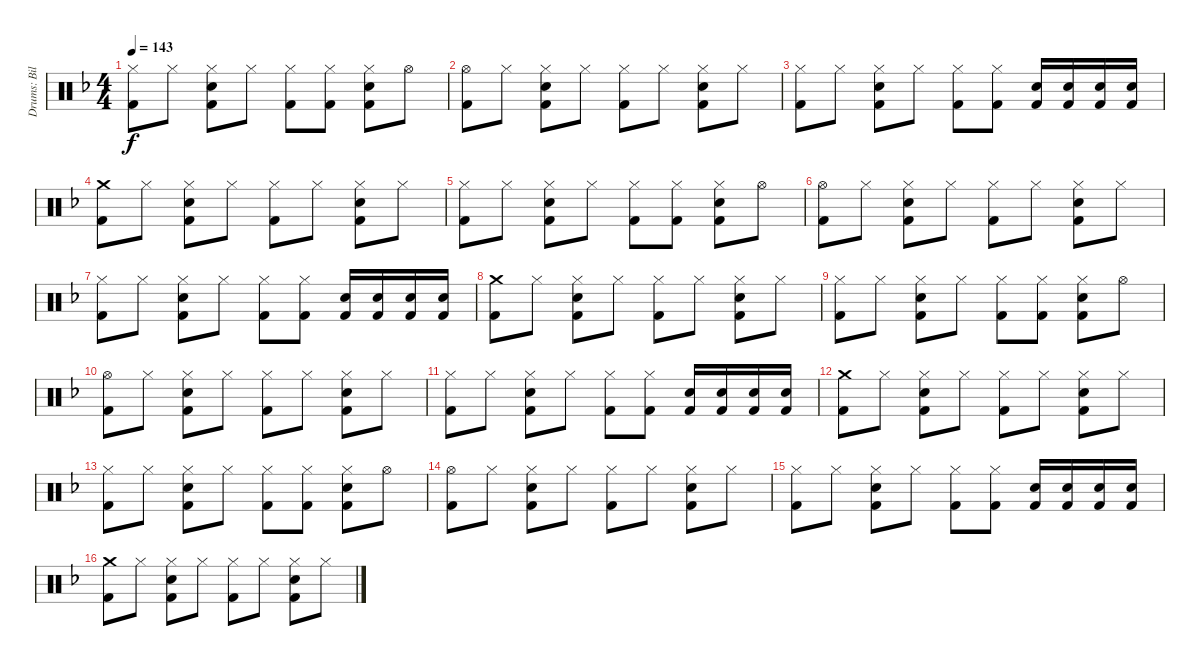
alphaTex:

\track ("Drums: Bill" "Drums: Bil") {instrument percussion}
\staff {score}
\articulation defaults
\ts (4 4)
\tempo 143
\clef neutral
\ks f
("Hi-Hat (closed)" "Kick (hit) 2").8{dy f} "Hi-Hat (closed)".8 ("Hi-Hat (closed)" "Snare (hit) 2" "Kick (hit) 2").8 "Hi-Hat (closed)".8 ("Hi-Hat (closed)" "Kick (hit) 2").8 ("Hi-Hat (closed)" "Kick (hit) 2").8 ("Hi-Hat (closed)" "Snare (hit) 2" "Kick (hit) 2").8 "Hi-Hat (open)".8 |
("Hi-Hat (open)" "Kick (hit) 2").8 "Hi-Hat (closed)".8 ("Hi-Hat (closed)" "Snare (hit) 2" "Kick (hit) 2").8 "Hi-Hat (closed)".8 ("Hi-Hat (closed)" "Kick (hit) 2").8 "Hi-Hat (closed)".8 ("Hi-Hat (closed)" "Snare (hit) 2" "Kick (hit) 2").8 "Hi-Hat (closed)".8 |
("Hi-Hat (closed)" "Kick (hit) 2").8 "Hi-Hat (closed)".8 ("Hi-Hat (closed)" "Snare (hit) 2" "Kick (hit) 2").8 "Hi-Hat (closed)".8 ("Hi-Hat (closed)" "Kick (hit) 2").8 ("Hi-Hat (closed)" "Kick (hit) 2").8 ("Snare (hit) 2" "Kick (hit) 2").16 ("Snare (hit) 2" "Kick (hit) 2").16 ("Snare (hit) 2" "Kick (hit) 2").16 ("Snare (hit) 2" "Kick (hit) 2").16 |
("Crash medium (hit)" "Kick (hit) 2").8 "Hi-Hat (closed)".8 ("Hi-Hat (closed)" "Snare (hit) 2" "Kick (hit) 2").8 "Hi-Hat (closed)".8 ("Hi-Hat (closed)" "Kick (hit) 2").8 "Hi-Hat (closed)".8 ("Hi-Hat (closed)" "Snare (hit) 2" "Kick (hit) 2").8 "Hi-Hat (closed)".8 |
("Hi-Hat (closed)" "Kick (hit) 2").8 "Hi-Hat (closed)".8 ("Hi-Hat (closed)" "Snare (hit) 2" "Kick (hit) 2").8 "Hi-Hat (closed)".8 ("Hi-Hat (closed)" "Kick (hit) 2").8 ("Hi-Hat (closed)" "Kick (hit) 2").8 ("Hi-Hat (closed)" "Snare (hit) 2" "Kick (hit) 2").8 "Hi-Hat (open)".8 |
("Hi-Hat (open)" "Kick (hit) 2").8 "Hi-Hat (closed)".8 ("Hi-Hat (closed)" "Snare (hit) 2" "Kick (hit) 2").8 "Hi-Hat (closed)".8 ("Hi-Hat (closed)" "Kick (hit) 2").8 "Hi-Hat (closed)".8 ("Hi-Hat (closed)" "Snare (hit) 2" "Kick (hit) 2").8 "Hi-Hat (closed)".8 |
("Hi-Hat (closed)" "Kick (hit) 2").8 "Hi-Hat (closed)".8 ("Hi-Hat (closed)" "Snare (hit) 2" "Kick (hit) 2").8 "Hi-Hat (closed)".8 ("Hi-Hat (closed)" "Kick (hit) 2").8 ("Hi-Hat (closed)" "Kick (hit) 2").8 ("Snare (hit) 2" "Kick (hit) 2").16 ("Snare (hit) 2" "Kick (hit) 2").16 ("Snare (hit) 2" "Kick (hit) 2").16 ("Snare (hit) 2" "Kick (hit) 2").16 |
("Crash medium (hit)" "Kick (hit) 2").8 "Hi-Hat (closed)".8 ("Hi-Hat (closed)" "Snare (hit) 2" "Kick (hit) 2").8 "Hi-Hat (closed)".8 ("Hi-Hat (closed)" "Kick (hit) 2").8 "Hi-Hat (closed)".8 ("Hi-Hat (closed)" "Snare (hit) 2" "Kick (hit) 2").8 "Hi-Hat (closed)".8 |
("Hi-Hat (closed)" "Kick (hit) 2").8 "Hi-Hat (closed)".8 ("Hi-Hat (closed)" "Snare (hit) 2" "Kick (hit) 2").8 "Hi-Hat (closed)".8 ("Hi-Hat (closed)" "Kick (hit) 2").8 ("Hi-Hat (closed)" "Kick (hit) 2").8 ("Hi-Hat (closed)" "Snare (hit) 2" "Kick (hit) 2").8 "Hi-Hat (open)".8 |
("Hi-Hat (open)" "Kick (hit) 2").8 "Hi-Hat (closed)".8 ("Hi-Hat (closed)" "Snare (hit) 2" "Kick (hit) 2").8 "Hi-Hat (closed)".8 ("Hi-Hat (closed)" "Kick (hit) 2").8 "Hi-Hat (closed)".8 ("Hi-Hat (closed)" "Snare (hit) 2" "Kick (hit) 2").8 "Hi-Hat (closed)".8 |
("Hi-Hat (closed)" "Kick (hit) 2").8 "Hi-Hat (closed)".8 ("Hi-Hat (closed)" "Snare (hit) 2" "Kick (hit) 2").8 "Hi-Hat (closed)".8 ("Hi-Hat (closed)" "Kick (hit) 2").8 ("Hi-Hat (closed)" "Kick (hit) 2").8 ("Snare (hit) 2" "Kick (hit) 2").16 ("Snare (hit) 2" "Kick (hit) 2").16 ("Snare (hit) 2" "Kick (hit) 2").16 ("Snare (hit) 2" "Kick (hit) 2").16 |
("Crash medium (hit)" "Kick (hit) 2").8 "Hi-Hat (closed)".8 ("Hi-Hat (closed)" "Snare (hit) 2" "Kick (hit) 2").8 "Hi-Hat (closed)".8 ("Hi-Hat (closed)" "Kick (hit) 2").8 "Hi-Hat (closed)".8 ("Hi-Hat (closed)" "Snare (hit) 2" "Kick (hit) 2").8 "Hi-Hat (closed)".8 |
("Hi-Hat (closed)" "Kick (hit) 2").8 "Hi-Hat (closed)".8 ("Hi-Hat (closed)" "Snare (hit) 2" "Kick (hit) 2").8 "Hi-Hat (closed)".8 ("Hi-Hat (closed)" "Kick (hit) 2").8 ("Hi-Hat (closed)" "Kick (hit) 2").8 ("Hi-Hat (closed)" "Snare (hit) 2" "Kick (hit) 2").8 "Hi-Hat (open)".8 |
("Hi-Hat (open)" "Kick (hit) 2").8 "Hi-Hat (closed)".8 ("Hi-Hat (closed)" "Snare (hit) 2" "Kick (hit) 2").8 "Hi-Hat (closed)".8 ("Hi-Hat (closed)" "Kick (hit) 2").8 "Hi-Hat (closed)".8 ("Hi-Hat (closed)" "Snare (hit) 2" "Kick (hit) 2").8 "Hi-Hat (closed)".8 |
("Hi-Hat (closed)" "Kick (hit) 2").8 "Hi-Hat (closed)".8 ("Hi-Hat (closed)" "Snare (hit) 2" "Kick (hit) 2").8 "Hi-Hat (closed)".8 ("Hi-Hat (closed)" "Kick (hit) 2").8 ("Hi-Hat (closed)" "Kick (hit) 2").8 ("Snare (hit) 2" "Kick (hit) 2").16 ("Snare (hit) 2" "Kick (hit) 2").16 ("Snare (hit) 2" "Kick (hit) 2").16 ("Snare (hit) 2" "Kick (hit) 2").16 |
("Crash medium (hit)" "Kick (hit) 2").8 "Hi-Hat (closed)".8 ("Hi-Hat (closed)" "Snare (hit) 2" "Kick (hit) 2").8 "Hi-Hat (closed)".8 ("Hi-Hat (closed)" "Kick (hit) 2").8 "Hi-Hat (closed)".8 ("Hi-Hat (closed)" "Snare (hit) 2" "Kick (hit) 2").8 "Hi-Hat (closed)".8
